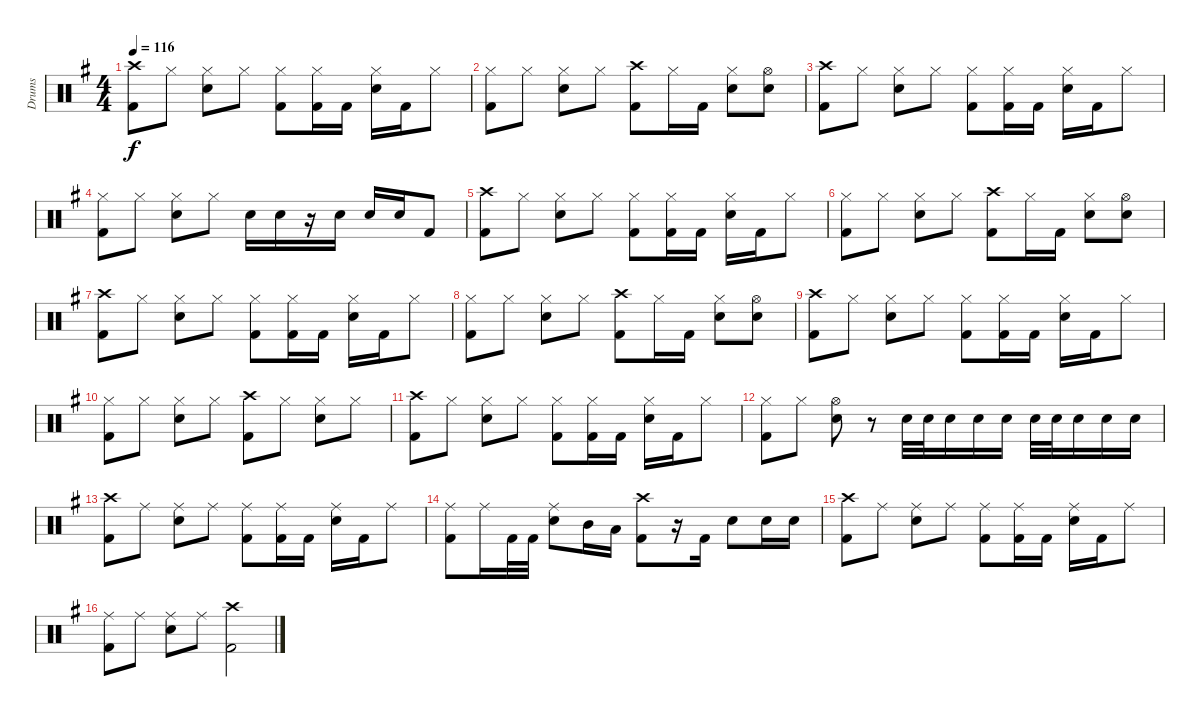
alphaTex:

\track ("Drums" "Drums") {instrument percussion}
\staff {score}
\articulation defaults
\ts (4 4)
\tempo 116
\clef neutral
\ks g
("Crash high (hit)" "Kick (hit) 2").8{dy f} "Hi-Hat (closed)".8 ("Hi-Hat (closed)" "Snare (hit) 2").8 "Hi-Hat (closed)".8 ("Hi-Hat (closed)" "Kick (hit) 2").8 ("Hi-Hat (closed)" "Kick (hit) 2").16 "Kick (hit) 2".16 ("Hi-Hat (closed)" "Snare (hit) 2").16 "Kick (hit) 2".16 "Hi-Hat (closed)".8 |
("Hi-Hat (closed)" "Kick (hit) 2").8 "Hi-Hat (closed)".8 ("Hi-Hat (closed)" "Snare (hit) 2").8 "Hi-Hat (closed)".8 ("Crash high (hit)" "Kick (hit) 2").8 "Hi-Hat (closed)".16 "Kick (hit) 2".16 ("Hi-Hat (closed)" "Snare (hit) 2").8 ("Hi-Hat (open)" "Snare (hit) 2").8 |
("Crash high (hit)" "Kick (hit) 2").8 "Hi-Hat (closed)".8 ("Hi-Hat (closed)" "Snare (hit) 2").8 "Hi-Hat (closed)".8 ("Hi-Hat (closed)" "Kick (hit) 2").8 ("Hi-Hat (closed)" "Kick (hit) 2").16 "Kick (hit) 2".16 ("Hi-Hat (closed)" "Snare (hit) 2").16 "Kick (hit) 2".16 "Hi-Hat (closed)".8 |
("Hi-Hat (closed)" "Kick (hit) 2").8 "Hi-Hat (closed)".8 ("Hi-Hat (closed)" "Snare (hit) 2").8 "Hi-Hat (closed)".8 "Snare (hit) 2".16 "Snare (hit) 2".16 r.16 "Snare (hit) 2".16 "Snare (hit) 2".16 "Snare (hit) 2".16 "Kick (hit) 2".8 |
("Crash high (hit)" "Kick (hit) 2").8 "Hi-Hat (closed)".8 ("Hi-Hat (closed)" "Snare (hit) 2").8 "Hi-Hat (closed)".8 ("Hi-Hat (closed)" "Kick (hit) 2").8 ("Hi-Hat (closed)" "Kick (hit) 2").16 "Kick (hit) 2".16 ("Hi-Hat (closed)" "Snare (hit) 2").16 "Kick (hit) 2".16 "Hi-Hat (closed)".8 |
("Hi-Hat (closed)" "Kick (hit) 2").8 "Hi-Hat (closed)".8 ("Hi-Hat (closed)" "Snare (hit) 2").8 "Hi-Hat (closed)".8 ("Crash high (hit)" "Kick (hit) 2").8 "Hi-Hat (closed)".16 "Kick (hit) 2".16 ("Hi-Hat (closed)" "Snare (hit) 2").8 ("Hi-Hat (open)" "Snare (hit) 2").8 |
("Crash high (hit)" "Kick (hit) 2").8 "Hi-Hat (closed)".8 ("Hi-Hat (closed)" "Snare (hit) 2").8 "Hi-Hat (closed)".8 ("Hi-Hat (closed)" "Kick (hit) 2").8 ("Hi-Hat (closed)" "Kick (hit) 2").16 "Kick (hit) 2".16 ("Hi-Hat (closed)" "Snare (hit) 2").16 "Kick (hit) 2".16 "Hi-Hat (closed)".8 |
("Hi-Hat (closed)" "Kick (hit) 2").8 "Hi-Hat (closed)".8 ("Hi-Hat (closed)" "Snare (hit) 2").8 "Hi-Hat (closed)".8 ("Crash high (hit)" "Kick (hit) 2").8 "Hi-Hat (closed)".16 "Kick (hit) 2".16 ("Hi-Hat (closed)" "Snare (hit) 2").8 ("Hi-Hat (open)" "Snare (hit) 2").8 |
("Crash high (hit)" "Kick (hit) 2").8 "Hi-Hat (closed)".8 ("Hi-Hat (closed)" "Snare (hit) 2").8 "Hi-Hat (closed)".8 ("Hi-Hat (closed)" "Kick (hit) 2").8 ("Hi-Hat (closed)" "Kick (hit) 2").16 "Kick (hit) 2".16 ("Hi-Hat (closed)" "Snare (hit) 2").16 "Kick (hit) 2".16 "Hi-Hat (closed)".8 |
("Hi-Hat (closed)" "Kick (hit) 2").8 "Hi-Hat (closed)".8 ("Hi-Hat (closed)" "Snare (hit) 2").8 "Hi-Hat (closed)".8 ("Crash high (hit)" "Kick (hit) 2").8 "Hi-Hat (closed)".8 ("Hi-Hat (closed)" "Snare (hit) 2").8 "Hi-Hat (closed)".8 |
("Crash high (hit)" "Kick (hit) 2").8 "Hi-Hat (closed)".8 ("Hi-Hat (closed)" "Snare (hit) 2").8 "Hi-Hat (closed)".8 ("Hi-Hat (closed)" "Kick (hit) 2").8 ("Hi-Hat (closed)" "Kick (hit) 2").16 "Kick (hit) 2".16 ("Hi-Hat (closed)" "Snare (hit) 2").16 "Kick (hit) 2".16 "Hi-Hat (closed)".8 |
("Hi-Hat (closed)" "Kick (hit) 2").8 "Hi-Hat (closed)".8 ("Hi-Hat (open)" "Snare (hit) 2").8 r.8 "Snare (hit) 2".32 "Snare (hit) 2".32 "Snare (hit) 2".16 "Snare (hit) 2".16 "Snare (hit) 2".16 "Snare (hit) 2".32 "Snare (hit) 2".32 "Snare (hit) 2".16 "Snare (hit) 2".16 "Snare (hit) 2".16 |
("Crash high (hit)" "Kick (hit) 2").8 "Ride (middle)".8 ("Ride (middle)" "Snare (hit) 2").8 "Ride (middle)".8 ("Ride (middle)" "Kick (hit) 2").8 ("Ride (middle)" "Kick (hit) 2").16 "Kick (hit) 2".16 ("Ride (middle)" "Snare (hit) 2").16 "Kick (hit) 2".16 "Ride (middle)".8 |
("Ride (middle)" "Kick (hit) 2").8 "Ride (middle)".16 "Kick (hit) 2".32 "Kick (hit) 2".32 ("Ride (middle)" "Snare (hit) 2").8 "Mid Tom (hit)".16 "Low Tom (hit)".16 ("Crash high (hit)" "Kick (hit) 2").8 r.16 "Kick (hit) 2".16 "Snare (hit) 2".8 "Snare (hit) 2".16 "Snare (hit) 2".16 |
("Crash high (hit)" "Kick (hit) 2").8 "Ride (middle)".8 ("Ride (middle)" "Snare (hit) 2").8 "Ride (middle)".8 ("Ride (middle)" "Kick (hit) 2").8 ("Ride (middle)" "Kick (hit) 2").16 "Kick (hit) 2".16 ("Ride (middle)" "Snare (hit) 2").16 "Kick (hit) 2".16 "Ride (middle)".8 |
("Ride (middle)" "Kick (hit) 2").8 "Ride (middle)".8 ("Ride (middle)" "Snare (hit) 2").8 "Ride (middle)".8 ("Crash high (hit)" "Kick (hit) 2").2
